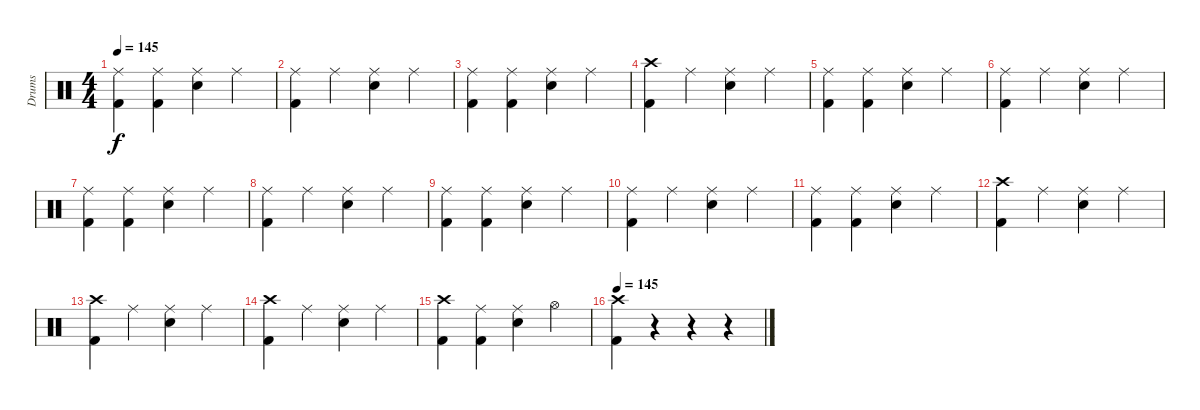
\track ("Drums" "Drums") {instrument percussion}
\staff {score}
\articulation defaults
\ts (4 4)
\tempo 145
\clef neutral
\ks c
("Ride (middle)" "Kick (hit) 2").4{dy f} ("Ride (middle)" "Kick (hit) 2").4 ("Ride (middle)" "Electric Snare (hit)").4 "Ride (middle)".4 |
("Ride (middle)" "Kick (hit) 2").4 "Ride (middle)".4 ("Ride (middle)" "Electric Snare (hit)").4 "Ride (middle)".4 |
("Ride (middle)" "Kick (hit) 2").4 ("Ride (middle)" "Kick (hit) 2").4 ("Ride (middle)" "Electric Snare (hit)").4 "Ride (middle)".4 |
("Crash high (hit)" "Kick (hit) 2").4 "Ride (middle)".4 ("Ride (middle)" "Electric Snare (hit)").4 "Ride (middle)".4 |
("Ride (middle)" "Kick (hit) 2").4 ("Ride (middle)" "Kick (hit) 2").4 ("Ride (middle)" "Electric Snare (hit)").4 "Ride (middle)".4 |
("Ride (middle)" "Kick (hit) 2").4 "Ride (middle)".4 ("Ride (middle)" "Electric Snare (hit)").4 "Ride (middle)".4 |
("Ride (middle)" "Kick (hit) 2").4 ("Ride (middle)" "Kick (hit) 2").4 ("Ride (middle)" "Electric Snare (hit)").4 "Ride (middle)".4 |
("Ride (middle)" "Kick (hit) 2").4 "Ride (middle)".4 ("Ride (middle)" "Electric Snare (hit)").4 "Ride (middle)".4 |
("Ride (middle)" "Kick (hit) 2").4 ("Ride (middle)" "Kick (hit) 2").4 ("Ride (middle)" "Electric Snare (hit)").4 "Ride (middle)".4 |
("Ride (middle)" "Kick (hit) 2").4 "Ride (middle)".4 ("Ride (middle)" "Electric Snare (hit)").4 "Ride (middle)".4 |
("Ride (middle)" "Kick (hit) 2").4 ("Ride (middle)" "Kick (hit) 2").4 ("Ride (middle)" "Electric Snare (hit)").4 "Ride (middle)".4 |
("Crash high (hit)" "Kick (hit) 2").4 "Ride (middle)".4 ("Ride (middle)" "Electric Snare (hit)").4 "Ride (middle)".4 |
("Crash high (hit)" "Kick (hit) 2").4 "Ride (middle)".4 ("Ride (middle)" "Electric Snare (hit)").4 "Ride (middle)".4 |
("Crash high (hit)" "Kick (hit) 2").4 "Ride (middle)".4 ("Ride (middle)" "Electric Snare (hit)").4 "Ride (middle)".4 |
("Crash high (hit)" "Kick (hit) 2").4 ("Ride (middle)" "Kick (hit) 2").4 ("Ride (middle)" "Electric Snare (hit)").4 "Hi-Hat (open)".4 |
\tempo 145
("Crash high (hit)" "Kick (hit) 2").4 r.4 r.4 r.4
